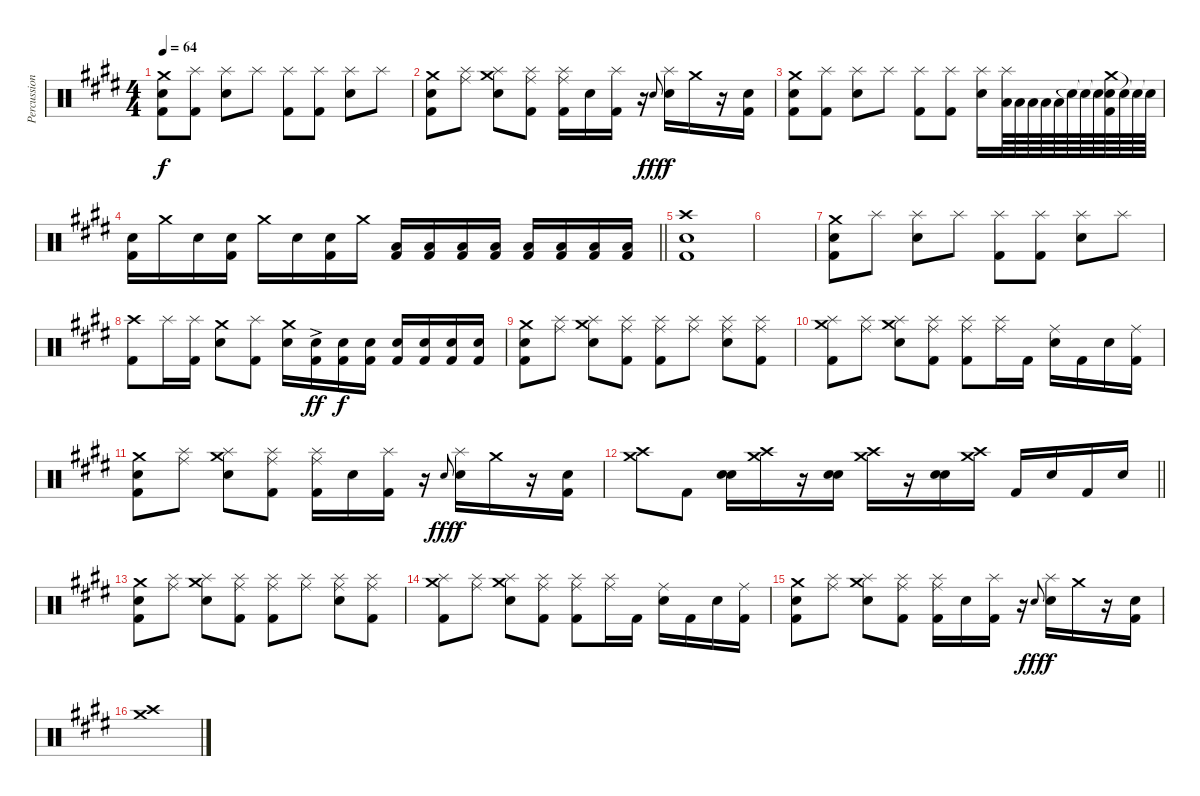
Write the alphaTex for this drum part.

\track ("Percussion" "Percussion") {instrument percussion}
\staff {score}
\articulation defaults
\ts (4 4)
\tempo 64
\clef neutral
\ks e
("Crash medium (hit)" "Snare (hit) 2" "Kick (hit) 2").8{dy f} ("Splash (hit)" "Kick (hit) 2").8 ("Splash (hit)" "Snare (hit) 2").8 "Splash (hit)".8 ("Splash (hit)" "Kick (hit) 2").8 ("Splash (hit)" "Kick (hit) 2").8 ("Splash (hit)" "Snare (hit) 2").8 "Splash (hit)".8 |
("Crash medium (hit)" "Kick (hit) 2" "Snare (hit) 2").8 ("Ride (middle)" "Splash (hit)").8 ("Crash medium (hit)" "Splash (hit)" "Snare (hit) 2").8 ("Ride (middle)" "Splash (hit)" "Kick (hit) 2").8 ("Ride (middle)" "Splash (hit)" "Kick (hit) 2").16 "Snare (hit) 2".16 ("Splash (hit)" "Kick (hit) 2").16 r.16 "Snare (hit) 2".8{gr onbeat dy fff} ("Splash (hit)" "Snare (hit) 2").16{dy f} "Crash medium (hit)".16 r.16 ("Snare (hit) 2" "Kick (hit) 2").16 |
("Crash medium (hit)" "Snare (hit) 2" "Kick (hit) 2").8 ("Splash (hit)" "Kick (hit) 2").8 ("Splash (hit)" "Snare (hit) 2").8 "Splash (hit)".8 ("Splash (hit)" "Kick (hit) 2").8 ("Splash (hit)" "Kick (hit) 2").8 ("Splash (hit)" "Snare (hit) 2").16 ("Splash (hit)" "Low Floor Tom (hit)").64 "Low Floor Tom (hit)".64 "Low Floor Tom (hit)".64 "Low Floor Tom (hit)".64 "Low Floor Tom (hit)".64 "Snare (hit)"{t}.64 "Snare (hit)"{t}.64 "Snare (hit) 2"{t}.64 ("Crash medium (hit)" "Snare (hit) 2" "Kick (hit) 2").64 "Snare (hit)"{t}.64 "Snare (hit)"{t}.64 "Snare (hit)"{t}.64 |
\barLineRight lightlight
("Electric Snare (hit)" "Kick (hit) 2").16 "Crash medium (hit)".16 "Electric Snare (hit)".16 ("Electric Snare (hit)" "Kick (hit) 2").16 "Crash medium (hit)".16 "Electric Snare (hit)".16 ("Electric Snare (hit)" "Kick (hit) 2").16 "Crash medium (hit)".16 ("Low Floor Tom (hit)" "Kick (hit) 2").16 ("Low Floor Tom (hit)" "Kick (hit) 2").16 ("Low Floor Tom (hit)" "Kick (hit) 2").16 ("Low Floor Tom (hit)" "Kick (hit) 2").16 ("Low Floor Tom (hit)" "Kick (hit) 2").16 ("Low Floor Tom (hit)" "Kick (hit) 2").16 ("Low Floor Tom (hit)" "Kick (hit) 2").16 ("Low Floor Tom (hit)" "Kick (hit) 2").16 |
("Crash high (hit)" "Snare (hit) 2" "Kick (hit) 2").1 |
|
("Crash medium (hit)" "Snare (hit) 2" "Kick (hit) 2").8 "Splash (hit)".8 ("Splash (hit)" "Snare (hit) 2").8 "Splash (hit)".8 ("Splash (hit)" "Kick (hit) 2").8 ("Splash (hit)" "Kick (hit) 2").8 ("Splash (hit)" "Snare (hit) 2").8 "Splash (hit)".8 |
("Crash high (hit)" "Kick (hit) 2").8 "Splash (hit)".16 ("Splash (hit)" "Kick (hit) 2").16 ("Crash medium (hit)" "Snare (hit) 2").8 ("Splash (hit)" "Kick (hit) 2").8 ("Crash medium (hit)" "Snare (hit) 2").16 ("Electric Snare (hit)" "Kick (hit) 2"{ac}).16{dy ff} ("Electric Snare (hit)" "Kick (hit) 2").16{dy f} ("Electric Snare (hit)" "Kick (hit) 2").16 ("Electric Snare (hit)" "Kick (hit) 2").16 ("Electric Snare (hit)" "Kick (hit) 2").16 ("Electric Snare (hit)" "Kick (hit) 2").16 ("Electric Snare (hit)" "Kick (hit) 2").16 |
("Crash medium (hit)" "Kick (hit) 2" "Snare (hit) 2").8 ("Ride (middle)" "Splash (hit)").8 ("Crash medium (hit)" "Splash (hit)" "Snare (hit) 2").8 ("Ride (middle)" "Splash (hit)" "Kick (hit) 2").8 ("Ride (middle)" "Splash (hit)" "Kick (hit) 2").8 ("Ride (middle)" "Splash (hit)").8 ("Ride (middle)" "Splash (hit)" "Snare (hit) 2").8 ("Ride (middle)" "Splash (hit)" "Kick (hit) 2").8 |
("Crash medium (hit)" "Splash (hit)" "Kick (hit) 2").8 ("Ride (middle)" "Splash (hit)").8 ("Crash medium (hit)" "Splash (hit)" "Snare (hit) 2").8 ("Ride (middle)" "Splash (hit)" "Kick (hit) 2").8 ("Ride (middle)" "Splash (hit)" "Kick (hit) 2").8 ("Ride (middle)" "Splash (hit)").16 "Kick (hit) 2".16 ("Ride (middle)" "Snare (hit) 2").16 "Kick (hit) 2".16 "Snare (hit) 2".16 ("Ride (middle)" "Kick (hit) 2").16 |
("Crash medium (hit)" "Kick (hit) 2" "Snare (hit) 2").8 ("Ride (middle)" "Splash (hit)").8 ("Crash medium (hit)" "Splash (hit)" "Snare (hit) 2").8 ("Ride (middle)" "Splash (hit)" "Kick (hit) 2").8 ("Ride (middle)" "Splash (hit)" "Kick (hit) 2").16 "Snare (hit) 2".16 ("Splash (hit)" "Kick (hit) 2").16 r.16 "Snare (hit) 2".8{gr onbeat dy fff} ("Splash (hit)" "Snare (hit) 2").16{dy f} "Crash medium (hit)".16 r.16 ("Snare (hit) 2" "Kick (hit) 2").16 |
\barLineRight lightlight
("Crash high (hit)" "Crash medium (hit)").8 "Kick (hit) 2".8 ("Electric Snare (hit)" "Snare (hit) 2").16 ("Crash high (hit)" "Crash medium (hit)").16 r.16 ("Electric Snare (hit)" "Snare (hit) 2").16 ("Crash high (hit)" "Crash medium (hit)").16 r.16 ("Electric Snare (hit)" "Snare (hit) 2").16 ("Crash high (hit)" "Crash medium (hit)").16 "Kick (hit) 2".16 "Snare (hit) 2".16 "Kick (hit) 2".16 "Snare (hit) 2".16 |
("Crash medium (hit)" "Kick (hit) 2" "Snare (hit) 2").8 ("Ride (middle)" "Splash (hit)").8 ("Crash medium (hit)" "Splash (hit)" "Snare (hit) 2").8 ("Ride (middle)" "Splash (hit)" "Kick (hit) 2").8 ("Ride (middle)" "Splash (hit)" "Kick (hit) 2").8 ("Ride (middle)" "Splash (hit)").8 ("Ride (middle)" "Splash (hit)" "Snare (hit) 2").8 ("Ride (middle)" "Splash (hit)" "Kick (hit) 2").8 |
("Crash medium (hit)" "Splash (hit)" "Kick (hit) 2").8 ("Ride (middle)" "Splash (hit)").8 ("Crash medium (hit)" "Splash (hit)" "Snare (hit) 2").8 ("Ride (middle)" "Splash (hit)" "Kick (hit) 2").8 ("Ride (middle)" "Splash (hit)" "Kick (hit) 2").8 ("Ride (middle)" "Splash (hit)").16 "Kick (hit) 2".16 ("Ride (middle)" "Snare (hit) 2").16 "Kick (hit) 2".16 "Snare (hit) 2".16 ("Ride (middle)" "Kick (hit) 2").16 |
("Crash medium (hit)" "Kick (hit) 2" "Snare (hit) 2").8 ("Ride (middle)" "Splash (hit)").8 ("Crash medium (hit)" "Splash (hit)" "Snare (hit) 2").8 ("Ride (middle)" "Splash (hit)" "Kick (hit) 2").8 ("Ride (middle)" "Splash (hit)" "Kick (hit) 2").16 "Snare (hit) 2".16 ("Splash (hit)" "Kick (hit) 2").16 r.16 "Snare (hit) 2".8{gr onbeat dy fff} ("Splash (hit)" "Snare (hit) 2").16{dy f} "Crash medium (hit)".16 r.16 ("Snare (hit) 2" "Kick (hit) 2").16 |
("Crash medium (hit)" "Crash high (hit)").1
